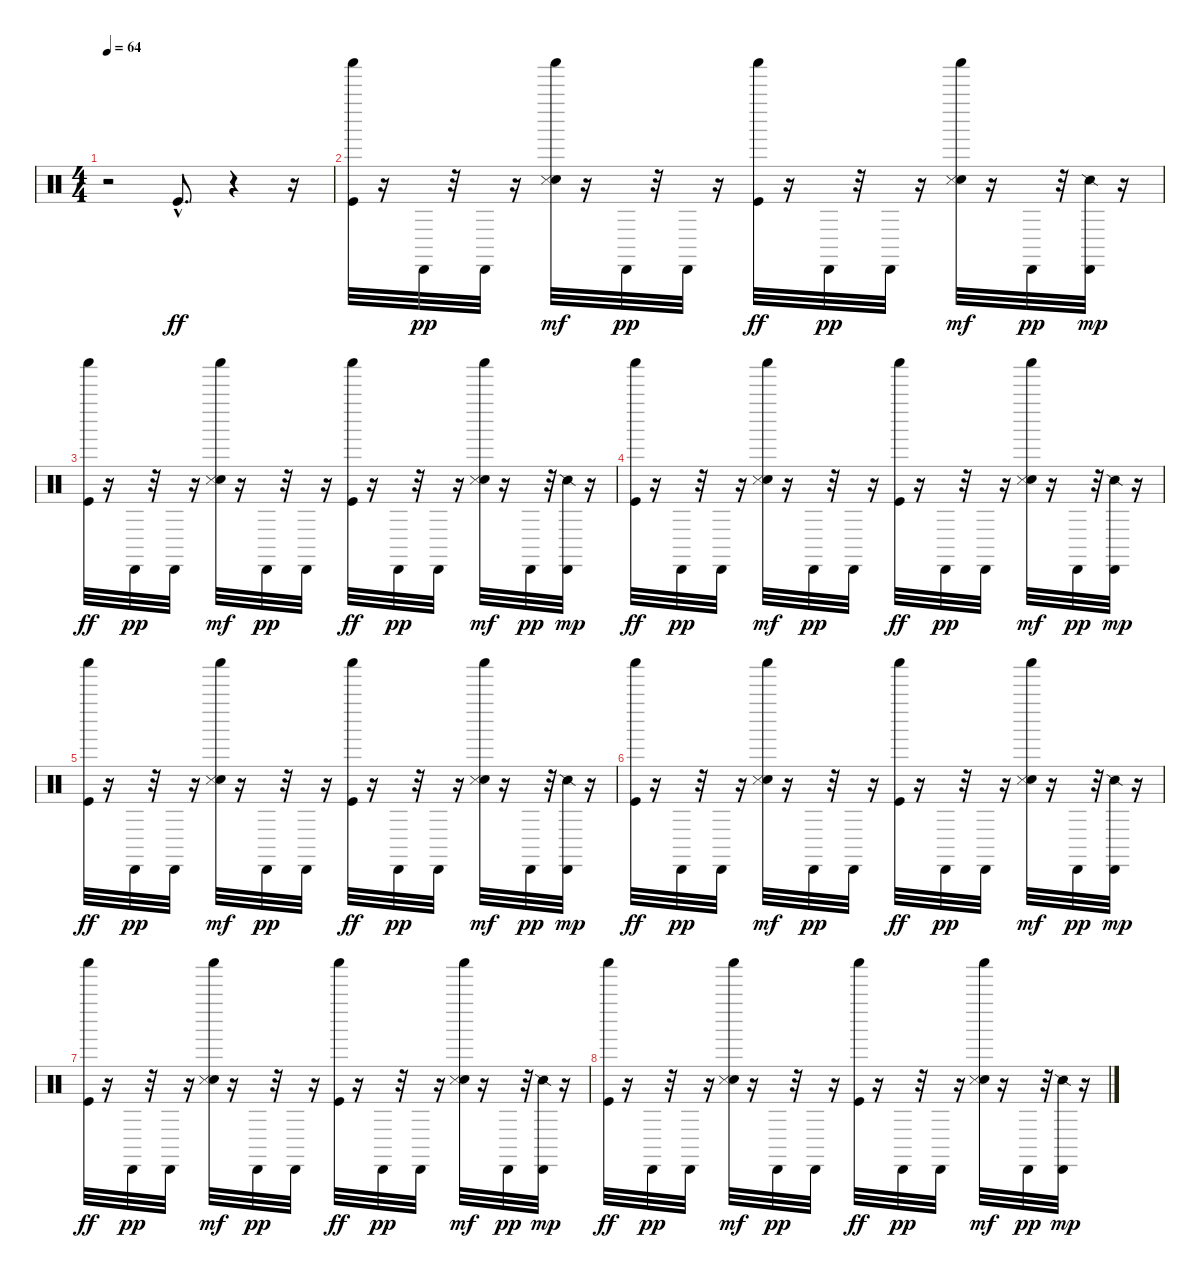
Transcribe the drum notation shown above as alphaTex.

\track "" {instrument percussion}
\staff {score}
\articulation defaults
\ts (4 4)
\tempo 64
\clef neutral
\ks c
r.2{dy ff} "Kick (hit)"{hac}.8{d} r.4 r.16 |
("Shaker (hit)" "Kick (hit)").32 r.16 "Cabasa (hit)".32{dy pp} r.32 "Cabasa (hit)".32 r.16 ("Shaker (hit)" "Snare (hit) 2" "Snare (side stick) 3").32{dy mf} r.16 "Cabasa (hit)".32{dy pp} r.32 "Cabasa (hit)".32 r.16 ("Shaker (hit)" "Kick (hit)").32{dy ff} r.16 "Cabasa (hit)".32{dy pp} r.32 "Cabasa (hit)".32 r.16 ("Shaker (hit)" "Snare (hit) 2" "Snare (side stick) 3").32{dy mf} r.16 "Cabasa (hit)".32{dy pp} r.32 ("Cabasa (hit)" "Snare (side stick) 2").32{dy mp} r.16 |
("Shaker (hit)" "Kick (hit)").32{dy ff} r.16 "Cabasa (hit)".32{dy pp} r.32 "Cabasa (hit)".32 r.16 ("Shaker (hit)" "Snare (hit) 2" "Snare (side stick) 3").32{dy mf} r.16 "Cabasa (hit)".32{dy pp} r.32 "Cabasa (hit)".32 r.16 ("Shaker (hit)" "Kick (hit)").32{dy ff} r.16 "Cabasa (hit)".32{dy pp} r.32 "Cabasa (hit)".32 r.16 ("Shaker (hit)" "Snare (hit) 2" "Snare (side stick) 3").32{dy mf} r.16 "Cabasa (hit)".32{dy pp} r.32 ("Cabasa (hit)" "Snare (side stick) 2").32{dy mp} r.16 |
("Shaker (hit)" "Kick (hit)").32{dy ff} r.16 "Cabasa (hit)".32{dy pp} r.32 "Cabasa (hit)".32 r.16 ("Shaker (hit)" "Snare (hit) 2" "Snare (side stick) 3").32{dy mf} r.16 "Cabasa (hit)".32{dy pp} r.32 "Cabasa (hit)".32 r.16 ("Shaker (hit)" "Kick (hit)").32{dy ff} r.16 "Cabasa (hit)".32{dy pp} r.32 "Cabasa (hit)".32 r.16 ("Shaker (hit)" "Snare (hit) 2" "Snare (side stick) 3").32{dy mf} r.16 "Cabasa (hit)".32{dy pp} r.32 ("Cabasa (hit)" "Snare (side stick) 2").32{dy mp} r.16 |
("Shaker (hit)" "Kick (hit)").32{dy ff} r.16 "Cabasa (hit)".32{dy pp} r.32 "Cabasa (hit)".32 r.16 ("Shaker (hit)" "Snare (hit) 2" "Snare (side stick) 3").32{dy mf} r.16 "Cabasa (hit)".32{dy pp} r.32 "Cabasa (hit)".32 r.16 ("Shaker (hit)" "Kick (hit)").32{dy ff} r.16 "Cabasa (hit)".32{dy pp} r.32 "Cabasa (hit)".32 r.16 ("Shaker (hit)" "Snare (hit) 2" "Snare (side stick) 3").32{dy mf} r.16 "Cabasa (hit)".32{dy pp} r.32 ("Cabasa (hit)" "Snare (side stick) 2").32{dy mp} r.16 |
("Shaker (hit)" "Kick (hit)").32{dy ff} r.16 "Cabasa (hit)".32{dy pp} r.32 "Cabasa (hit)".32 r.16 ("Shaker (hit)" "Snare (hit) 2" "Snare (side stick) 3").32{dy mf} r.16 "Cabasa (hit)".32{dy pp} r.32 "Cabasa (hit)".32 r.16 ("Shaker (hit)" "Kick (hit)").32{dy ff} r.16 "Cabasa (hit)".32{dy pp} r.32 "Cabasa (hit)".32 r.16 ("Shaker (hit)" "Snare (hit) 2" "Snare (side stick) 3").32{dy mf} r.16 "Cabasa (hit)".32{dy pp} r.32 ("Cabasa (hit)" "Snare (side stick) 2").32{dy mp} r.16 |
("Shaker (hit)" "Kick (hit)").32{dy ff} r.16 "Cabasa (hit)".32{dy pp} r.32 "Cabasa (hit)".32 r.16 ("Shaker (hit)" "Snare (hit) 2" "Snare (side stick) 3").32{dy mf} r.16 "Cabasa (hit)".32{dy pp} r.32 "Cabasa (hit)".32 r.16 ("Shaker (hit)" "Kick (hit)").32{dy ff} r.16 "Cabasa (hit)".32{dy pp} r.32 "Cabasa (hit)".32 r.16 ("Shaker (hit)" "Snare (hit) 2" "Snare (side stick) 3").32{dy mf} r.16 "Cabasa (hit)".32{dy pp} r.32 ("Cabasa (hit)" "Snare (side stick) 2").32{dy mp} r.16 |
("Shaker (hit)" "Kick (hit)").32{dy ff} r.16 "Cabasa (hit)".32{dy pp} r.32 "Cabasa (hit)".32 r.16 ("Shaker (hit)" "Snare (hit) 2" "Snare (side stick) 3").32{dy mf} r.16 "Cabasa (hit)".32{dy pp} r.32 "Cabasa (hit)".32 r.16 ("Shaker (hit)" "Kick (hit)").32{dy ff} r.16 "Cabasa (hit)".32{dy pp} r.32 "Cabasa (hit)".32 r.16 ("Shaker (hit)" "Snare (hit) 2" "Snare (side stick) 3").32{dy mf} r.16 "Cabasa (hit)".32{dy pp} r.32 ("Cabasa (hit)" "Snare (side stick) 2").32{dy mp} r.16
